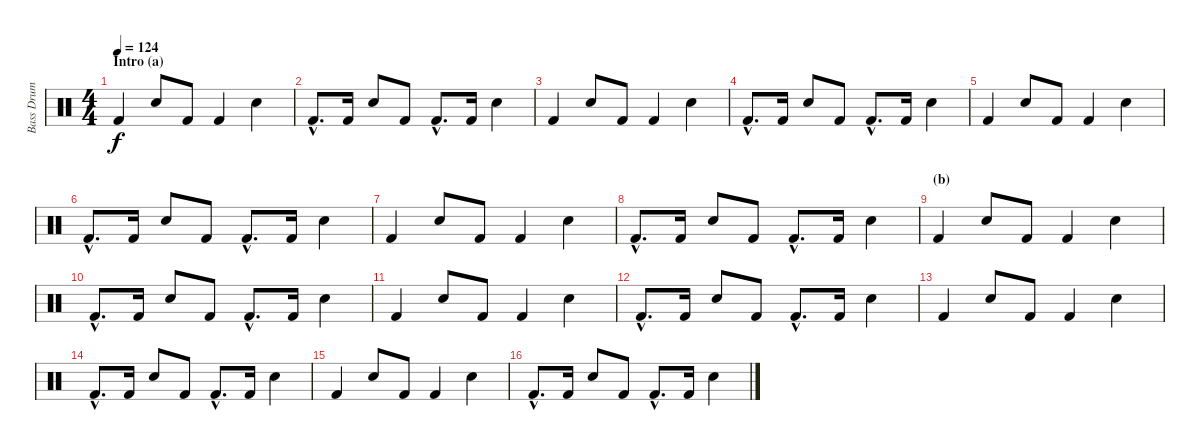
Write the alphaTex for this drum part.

\track ("Bass Drum and Snares" "Bass Drum ") {instrument percussion}
\staff {score}
\articulation defaults
\ts (4 4)
\section ("" "Intro (a)")
\tempo 124
\clef neutral
\ks c "Kick (hit) 2".4{dy f} "Snare (hit) 2".8 "Kick (hit) 2".8 "Kick (hit) 2".4 "Snare (hit) 2".4
|
"Kick (hit) 2"{hac}.8{d} "Kick (hit) 2".16 "Snare (hit) 2".8 "Kick (hit) 2".8 "Kick (hit) 2"{hac}.8{d} "Kick (hit) 2".16 "Snare (hit) 2".4 |
"Kick (hit) 2".4 "Snare (hit) 2".8 "Kick (hit) 2".8 "Kick (hit) 2".4 "Snare (hit) 2".4 |
"Kick (hit) 2"{hac}.8{d} "Kick (hit) 2".16 "Snare (hit) 2".8 "Kick (hit) 2".8 "Kick (hit) 2"{hac}.8{d} "Kick (hit) 2".16 "Snare (hit) 2".4 |
"Kick (hit) 2".4 "Snare (hit) 2".8 "Kick (hit) 2".8 "Kick (hit) 2".4 "Snare (hit) 2".4 |
"Kick (hit) 2"{hac}.8{d} "Kick (hit) 2".16 "Snare (hit) 2".8 "Kick (hit) 2".8 "Kick (hit) 2"{hac}.8{d} "Kick (hit) 2".16 "Snare (hit) 2".4 |
"Kick (hit) 2".4 "Snare (hit) 2".8 "Kick (hit) 2".8 "Kick (hit) 2".4 "Snare (hit) 2".4 |
"Kick (hit) 2"{hac}.8{d} "Kick (hit) 2".16 "Snare (hit) 2".8 "Kick (hit) 2".8 "Kick (hit) 2"{hac}.8{d} "Kick (hit) 2".16 "Snare (hit) 2".4 |
\section ("" "(b)")
"Kick (hit) 2".4 "Snare (hit) 2".8 "Kick (hit) 2".8 "Kick (hit) 2".4 "Snare (hit) 2".4 |
"Kick (hit) 2"{hac}.8{d} "Kick (hit) 2".16 "Snare (hit) 2".8 "Kick (hit) 2".8 "Kick (hit) 2"{hac}.8{d} "Kick (hit) 2".16 "Snare (hit) 2".4 |
"Kick (hit) 2".4 "Snare (hit) 2".8 "Kick (hit) 2".8 "Kick (hit) 2".4 "Snare (hit) 2".4 |
"Kick (hit) 2"{hac}.8{d} "Kick (hit) 2".16 "Snare (hit) 2".8 "Kick (hit) 2".8 "Kick (hit) 2"{hac}.8{d} "Kick (hit) 2".16 "Snare (hit) 2".4 |
"Kick (hit) 2".4 "Snare (hit) 2".8 "Kick (hit) 2".8 "Kick (hit) 2".4 "Snare (hit) 2".4 |
"Kick (hit) 2"{hac}.8{d} "Kick (hit) 2".16 "Snare (hit) 2".8 "Kick (hit) 2".8 "Kick (hit) 2"{hac}.8{d} "Kick (hit) 2".16 "Snare (hit) 2".4 |
"Kick (hit) 2".4 "Snare (hit) 2".8 "Kick (hit) 2".8 "Kick (hit) 2".4 "Snare (hit) 2".4 |
"Kick (hit) 2"{hac}.8{d} "Kick (hit) 2".16 "Snare (hit) 2".8 "Kick (hit) 2".8 "Kick (hit) 2"{hac}.8{d} "Kick (hit) 2".16 "Snare (hit) 2".4
